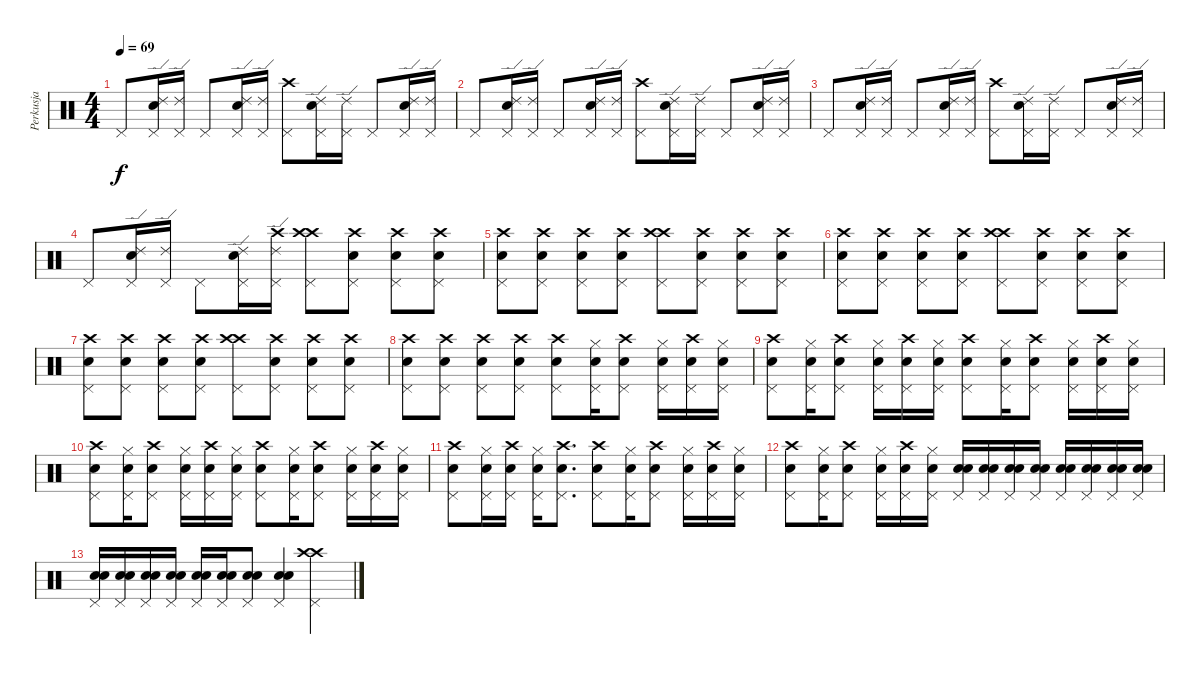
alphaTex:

\track ("Perkusja" "Perkusja") {instrument percussion}
\staff {score}
\articulation defaults
\ts (4 4)
\tempo 69
\clef neutral
\ks c "Pedal Hi-Hat (hit)".8{dy f}
("Pedal Hi-Hat (hit)" "Ride (edge) 2" "Snare (hit) 2").16 ("Pedal Hi-Hat (hit)" "Ride (edge) 2").16 "Pedal Hi-Hat (hit)".8 ("Pedal Hi-Hat (hit)" "Ride (edge) 2" "Snare (hit) 2").16 ("Pedal Hi-Hat (hit)" "Ride (edge) 2").16 ("Pedal Hi-Hat (hit)" "Crash high (hit)").8 ("Pedal Hi-Hat (hit)" "Ride (edge) 2" "Snare (hit) 2").16 ("Pedal Hi-Hat (hit)" "Ride (edge) 2").16 "Pedal Hi-Hat (hit)".8 ("Pedal Hi-Hat (hit)" "Ride (edge) 2" "Snare (hit) 2").16 ("Pedal Hi-Hat (hit)" "Ride (edge) 2").16 |
"Pedal Hi-Hat (hit)".8 ("Pedal Hi-Hat (hit)" "Ride (edge) 2" "Snare (hit) 2").16 ("Pedal Hi-Hat (hit)" "Ride (edge) 2").16 "Pedal Hi-Hat (hit)".8 ("Pedal Hi-Hat (hit)" "Ride (edge) 2" "Snare (hit) 2").16 ("Pedal Hi-Hat (hit)" "Ride (edge) 2").16 ("Pedal Hi-Hat (hit)" "Crash high (hit)").8 ("Pedal Hi-Hat (hit)" "Ride (edge) 2" "Snare (hit) 2").16 ("Pedal Hi-Hat (hit)" "Ride (edge) 2").16 "Pedal Hi-Hat (hit)".8 ("Pedal Hi-Hat (hit)" "Ride (edge) 2" "Snare (hit) 2").16 ("Pedal Hi-Hat (hit)" "Ride (edge) 2").16 |
"Pedal Hi-Hat (hit)".8 ("Pedal Hi-Hat (hit)" "Ride (edge) 2" "Snare (hit) 2").16 ("Pedal Hi-Hat (hit)" "Ride (edge) 2").16 "Pedal Hi-Hat (hit)".8 ("Pedal Hi-Hat (hit)" "Ride (edge) 2" "Snare (hit) 2").16 ("Pedal Hi-Hat (hit)" "Ride (edge) 2").16 ("Pedal Hi-Hat (hit)" "Crash high (hit)").8 ("Pedal Hi-Hat (hit)" "Ride (edge) 2" "Snare (hit) 2").16 ("Pedal Hi-Hat (hit)" "Ride (edge) 2").16 "Pedal Hi-Hat (hit)".8 ("Pedal Hi-Hat (hit)" "Ride (edge) 2" "Snare (hit) 2").16 ("Pedal Hi-Hat (hit)" "Ride (edge) 2").16 |
"Pedal Hi-Hat (hit)".8 ("Pedal Hi-Hat (hit)" "Ride (edge) 2" "Snare (hit) 2").16 ("Pedal Hi-Hat (hit)" "Ride (edge) 2").16 "Pedal Hi-Hat (hit)".8 ("Pedal Hi-Hat (hit)" "Ride (edge) 2" "Snare (hit) 2").16 ("Pedal Hi-Hat (hit)" "Ride (edge) 2" "Crash high (hit)").16 ("Pedal Hi-Hat (hit)" "Crash high (hit)" "Crash high (hit)").8 ("Pedal Hi-Hat (hit)" "Crash high (hit)" "Snare (hit) 2").8 ("Pedal Hi-Hat (hit)" "Crash high (hit)" "Snare (hit) 2").8 ("Pedal Hi-Hat (hit)" "Crash high (hit)" "Snare (hit) 2").8 |
("Pedal Hi-Hat (hit)" "Crash high (hit)" "Snare (hit) 2").8 ("Pedal Hi-Hat (hit)" "Crash high (hit)" "Snare (hit) 2").8 ("Pedal Hi-Hat (hit)" "Crash high (hit)" "Snare (hit) 2").8 ("Pedal Hi-Hat (hit)" "Crash high (hit)" "Snare (hit) 2").8 ("Pedal Hi-Hat (hit)" "Crash high (hit)" "Crash high (hit)").8 ("Pedal Hi-Hat (hit)" "Crash high (hit)" "Snare (hit) 2").8 ("Pedal Hi-Hat (hit)" "Crash high (hit)" "Snare (hit) 2").8 ("Pedal Hi-Hat (hit)" "Crash high (hit)" "Snare (hit) 2").8 |
("Pedal Hi-Hat (hit)" "Crash high (hit)" "Snare (hit) 2").8 ("Pedal Hi-Hat (hit)" "Crash high (hit)" "Snare (hit) 2").8 ("Pedal Hi-Hat (hit)" "Crash high (hit)" "Snare (hit) 2").8 ("Pedal Hi-Hat (hit)" "Crash high (hit)" "Snare (hit) 2").8 ("Pedal Hi-Hat (hit)" "Crash high (hit)" "Crash high (hit)").8 ("Pedal Hi-Hat (hit)" "Crash high (hit)" "Snare (hit) 2").8 ("Pedal Hi-Hat (hit)" "Crash high (hit)" "Snare (hit) 2").8 ("Pedal Hi-Hat (hit)" "Crash high (hit)" "Snare (hit) 2").8 |
("Pedal Hi-Hat (hit)" "Crash high (hit)" "Snare (hit) 2").8 ("Pedal Hi-Hat (hit)" "Crash high (hit)" "Snare (hit) 2").8 ("Pedal Hi-Hat (hit)" "Crash high (hit)" "Snare (hit) 2").8 ("Pedal Hi-Hat (hit)" "Crash high (hit)" "Snare (hit) 2").8 ("Pedal Hi-Hat (hit)" "Crash high (hit)" "Crash high (hit)").8 ("Pedal Hi-Hat (hit)" "Crash high (hit)" "Snare (hit) 2").8 ("Pedal Hi-Hat (hit)" "Crash high (hit)" "Snare (hit) 2").8 ("Pedal Hi-Hat (hit)" "Crash high (hit)" "Snare (hit) 2").8 |
("Pedal Hi-Hat (hit)" "Crash high (hit)" "Snare (hit) 2").8 ("Pedal Hi-Hat (hit)" "Crash high (hit)" "Snare (hit) 2").8 ("Pedal Hi-Hat (hit)" "Crash high (hit)" "Snare (hit) 2").8 ("Pedal Hi-Hat (hit)" "Crash high (hit)" "Snare (hit) 2").8 ("Pedal Hi-Hat (hit)" "Crash high (hit)" "Snare (hit) 2").8 ("Pedal Hi-Hat (hit)" "Hi-Hat (closed)" "Snare (hit) 2").16 ("Pedal Hi-Hat (hit)" "Crash high (hit)" "Snare (hit) 2").8 ("Pedal Hi-Hat (hit)" "Hi-Hat (closed)" "Snare (hit) 2").16 ("Pedal Hi-Hat (hit)" "Crash high (hit)" "Snare (hit) 2").16 ("Pedal Hi-Hat (hit)" "Hi-Hat (closed)" "Snare (hit) 2").16 |
("Pedal Hi-Hat (hit)" "Crash high (hit)" "Snare (hit) 2").8 ("Pedal Hi-Hat (hit)" "Hi-Hat (closed)" "Snare (hit) 2").16 ("Pedal Hi-Hat (hit)" "Crash high (hit)" "Snare (hit) 2").8 ("Pedal Hi-Hat (hit)" "Hi-Hat (closed)" "Snare (hit) 2").16 ("Pedal Hi-Hat (hit)" "Crash high (hit)" "Snare (hit) 2").16 ("Pedal Hi-Hat (hit)" "Hi-Hat (closed)" "Snare (hit) 2").16 ("Pedal Hi-Hat (hit)" "Crash high (hit)" "Snare (hit) 2").8 ("Pedal Hi-Hat (hit)" "Hi-Hat (closed)" "Snare (hit) 2").16 ("Pedal Hi-Hat (hit)" "Crash high (hit)" "Snare (hit) 2").8 ("Pedal Hi-Hat (hit)" "Hi-Hat (closed)" "Snare (hit) 2").16 ("Pedal Hi-Hat (hit)" "Crash high (hit)" "Snare (hit) 2").16 ("Pedal Hi-Hat (hit)" "Hi-Hat (closed)" "Snare (hit) 2").16 |
("Pedal Hi-Hat (hit)" "Crash high (hit)" "Snare (hit) 2").8 ("Pedal Hi-Hat (hit)" "Hi-Hat (closed)" "Snare (hit) 2").16 ("Pedal Hi-Hat (hit)" "Crash high (hit)" "Snare (hit) 2").8 ("Pedal Hi-Hat (hit)" "Hi-Hat (closed)" "Snare (hit) 2").16 ("Pedal Hi-Hat (hit)" "Crash high (hit)" "Snare (hit) 2").16 ("Pedal Hi-Hat (hit)" "Hi-Hat (closed)" "Snare (hit) 2").16 ("Pedal Hi-Hat (hit)" "Crash high (hit)" "Snare (hit) 2").8 ("Pedal Hi-Hat (hit)" "Hi-Hat (closed)" "Snare (hit) 2").16 ("Pedal Hi-Hat (hit)" "Crash high (hit)" "Snare (hit) 2").8 ("Pedal Hi-Hat (hit)" "Hi-Hat (closed)" "Snare (hit) 2").16 ("Pedal Hi-Hat (hit)" "Crash high (hit)" "Snare (hit) 2").16 ("Pedal Hi-Hat (hit)" "Hi-Hat (closed)" "Snare (hit) 2").16 |
("Pedal Hi-Hat (hit)" "Crash high (hit)" "Snare (hit) 2").8 ("Pedal Hi-Hat (hit)" "Hi-Hat (closed)" "Snare (hit) 2").16 ("Pedal Hi-Hat (hit)" "Crash high (hit)" "Snare (hit) 2").16 ("Pedal Hi-Hat (hit)" "Hi-Hat (closed)" "Snare (hit) 2").16 ("Pedal Hi-Hat (hit)" "Crash high (hit)" "Snare (hit) 2").8{d} ("Pedal Hi-Hat (hit)" "Crash high (hit)" "Snare (hit) 2").8 ("Pedal Hi-Hat (hit)" "Hi-Hat (closed)" "Snare (hit) 2").16 ("Pedal Hi-Hat (hit)" "Crash high (hit)" "Snare (hit) 2").8 ("Pedal Hi-Hat (hit)" "Hi-Hat (closed)" "Snare (hit) 2").16 ("Pedal Hi-Hat (hit)" "Crash high (hit)" "Snare (hit) 2").16 ("Pedal Hi-Hat (hit)" "Hi-Hat (closed)" "Snare (hit) 2").16 |
("Pedal Hi-Hat (hit)" "Crash high (hit)" "Snare (hit) 2").8 ("Pedal Hi-Hat (hit)" "Hi-Hat (closed)" "Snare (hit) 2").16 ("Pedal Hi-Hat (hit)" "Crash high (hit)" "Snare (hit) 2").8 ("Pedal Hi-Hat (hit)" "Hi-Hat (closed)" "Snare (hit) 2").16 ("Pedal Hi-Hat (hit)" "Crash high (hit)" "Snare (hit) 2").16 ("Pedal Hi-Hat (hit)" "Hi-Hat (closed)" "Snare (hit) 2").16 ("Pedal Hi-Hat (hit)" "Snare (hit) 2" "Snare (hit) 2").16 ("Pedal Hi-Hat (hit)" "Snare (hit) 2" "Snare (hit) 2").16 ("Pedal Hi-Hat (hit)" "Snare (hit) 2" "Snare (hit) 2").16 ("Pedal Hi-Hat (hit)" "Snare (hit) 2" "Snare (hit) 2").16 ("Pedal Hi-Hat (hit)" "Snare (hit) 2" "Snare (hit) 2").16 ("Pedal Hi-Hat (hit)" "Snare (hit) 2" "Snare (hit) 2").16 ("Pedal Hi-Hat (hit)" "Snare (hit) 2" "Snare (hit) 2").16 ("Pedal Hi-Hat (hit)" "Snare (hit) 2" "Snare (hit) 2").16 |
("Pedal Hi-Hat (hit)" "Snare (hit) 2" "Snare (hit) 2").16 ("Pedal Hi-Hat (hit)" "Snare (hit) 2" "Snare (hit) 2").16 ("Pedal Hi-Hat (hit)" "Snare (hit) 2" "Snare (hit) 2").16 ("Pedal Hi-Hat (hit)" "Snare (hit) 2" "Snare (hit) 2").16 ("Pedal Hi-Hat (hit)" "Snare (hit) 2" "Snare (hit) 2").16 ("Pedal Hi-Hat (hit)" "Snare (hit) 2" "Snare (hit) 2").16 ("Pedal Hi-Hat (hit)" "Snare (hit) 2" "Snare (hit) 2").8 ("Pedal Hi-Hat (hit)" "Snare (hit) 2" "Snare (hit) 2").4 ("Pedal Hi-Hat (hit)" "Crash high (hit)" "Crash high (hit)").4
